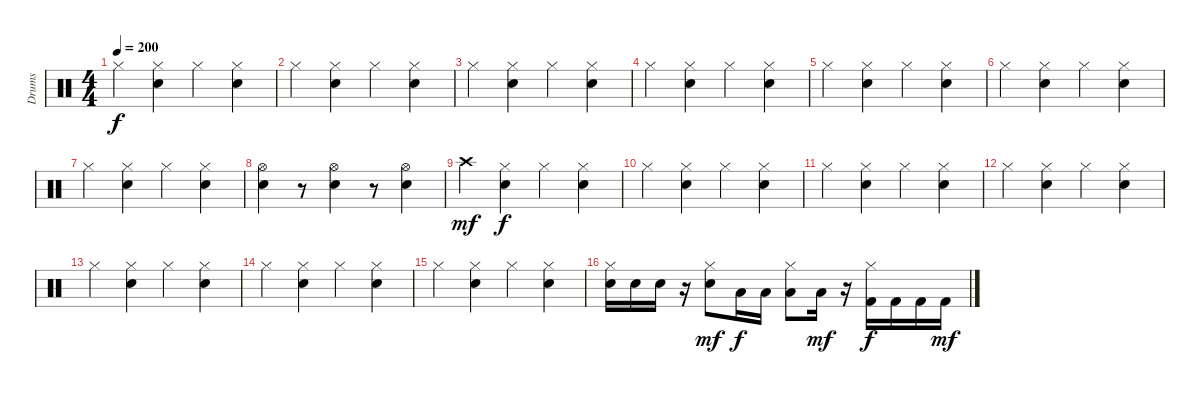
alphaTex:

\track ("Drums" "Drums") {instrument percussion}
\staff {score}
\articulation defaults
\ts (4 4)
\tempo 200
\clef neutral
\ks c "Hi-Hat (closed)".4{dy f}
("Snare (hit) 2" "Hi-Hat (closed)").4 "Hi-Hat (closed)".4 ("Snare (hit) 2" "Hi-Hat (closed)").4 |
"Hi-Hat (closed)".4 ("Snare (hit) 2" "Hi-Hat (closed)").4 "Hi-Hat (closed)".4 ("Snare (hit) 2" "Hi-Hat (closed)").4 |
"Hi-Hat (closed)".4 ("Snare (hit) 2" "Hi-Hat (closed)").4 "Hi-Hat (closed)".4 ("Snare (hit) 2" "Hi-Hat (closed)").4 |
"Hi-Hat (closed)".4 ("Snare (hit) 2" "Hi-Hat (closed)").4 "Hi-Hat (closed)".4 ("Snare (hit) 2" "Hi-Hat (closed)").4 |
"Hi-Hat (closed)".4 ("Snare (hit) 2" "Hi-Hat (closed)").4 "Hi-Hat (closed)".4 ("Snare (hit) 2" "Hi-Hat (closed)").4 |
"Hi-Hat (closed)".4 ("Snare (hit) 2" "Hi-Hat (closed)").4 "Hi-Hat (closed)".4 ("Snare (hit) 2" "Hi-Hat (closed)").4 |
"Hi-Hat (closed)".4 ("Snare (hit) 2" "Hi-Hat (closed)").4 "Hi-Hat (closed)".4 ("Snare (hit) 2" "Hi-Hat (closed)").4 |
("Hi-Hat (open)" "Electric Snare (hit)").4 r.8 ("Hi-Hat (open)" "Electric Snare (hit)").4 r.8 ("Hi-Hat (open)" "Electric Snare (hit)").4 |
"Crash high (hit)".4{dy mf} ("Snare (hit) 2" "Hi-Hat (closed)").4{dy f} "Hi-Hat (closed)".4 ("Snare (hit) 2" "Hi-Hat (closed)").4 |
"Hi-Hat (closed)".4 ("Snare (hit) 2" "Hi-Hat (closed)").4 "Hi-Hat (closed)".4 ("Snare (hit) 2" "Hi-Hat (closed)").4 |
"Hi-Hat (closed)".4 ("Snare (hit) 2" "Hi-Hat (closed)").4 "Hi-Hat (closed)".4 ("Snare (hit) 2" "Hi-Hat (closed)").4 |
"Hi-Hat (closed)".4 ("Snare (hit) 2" "Hi-Hat (closed)").4 "Hi-Hat (closed)".4 ("Snare (hit) 2" "Hi-Hat (closed)").4 |
"Hi-Hat (closed)".4 ("Snare (hit) 2" "Hi-Hat (closed)").4 "Hi-Hat (closed)".4 ("Snare (hit) 2" "Hi-Hat (closed)").4 |
"Hi-Hat (closed)".4 ("Snare (hit) 2" "Hi-Hat (closed)").4 "Hi-Hat (closed)".4 ("Snare (hit) 2" "Hi-Hat (closed)").4 |
"Hi-Hat (closed)".4 ("Snare (hit) 2" "Hi-Hat (closed)").4 "Hi-Hat (closed)".4 ("Snare (hit) 2" "Hi-Hat (closed)").4 |
("Snare (hit) 2" "Hi-Hat (closed)").16 "Snare (hit) 2".16 "Snare (hit) 2".16 r.16 ("Snare (hit) 2" "Hi-Hat (closed)").8{dy mf} "Low Floor Tom (hit)".16{dy f} "Low Floor Tom (hit)".16 ("Low Floor Tom (hit)" "Hi-Hat (closed)").8 "Low Floor Tom (hit)".16{dy mf} r.16 ("Kick (hit) 2" "Hi-Hat (closed)").16{dy f} "Kick (hit) 2".16 "Kick (hit) 2".16 "Kick (hit) 2".16{dy mf}
